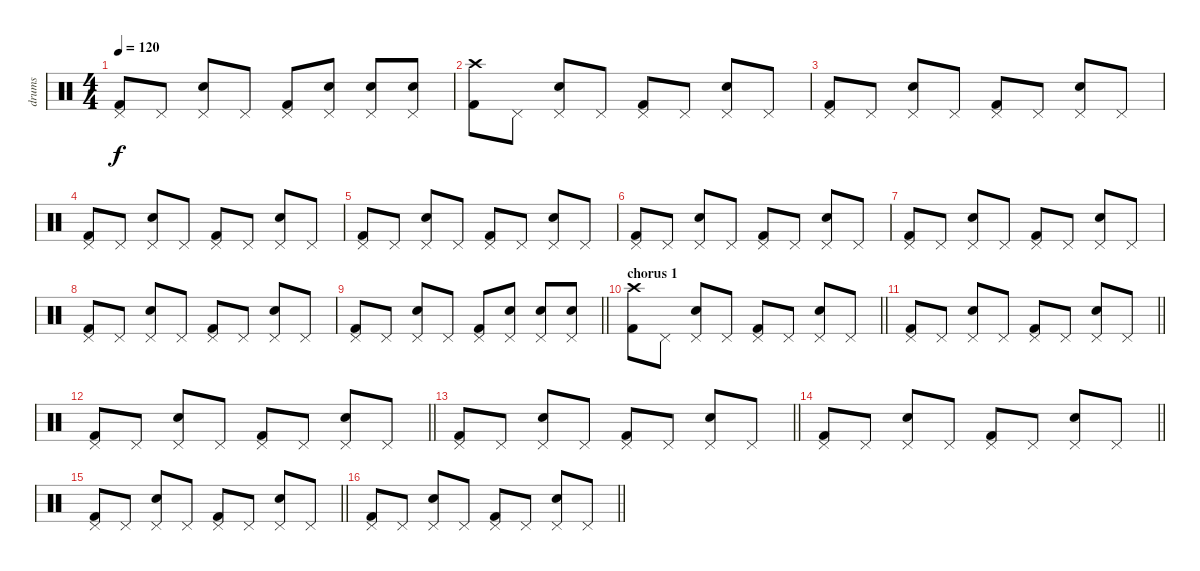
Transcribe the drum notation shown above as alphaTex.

\track ("drums" "drums") {instrument percussion}
\staff {score}
\articulation defaults
\ts (4 4)
\tempo 120
\clef neutral
\ks c
("Kick (hit) 2" "Pedal Hi-Hat (hit)").8{dy f} "Pedal Hi-Hat (hit)".8 ("Electric Snare (hit)" "Pedal Hi-Hat (hit)").8 "Pedal Hi-Hat (hit)".8 ("Kick (hit) 2" "Pedal Hi-Hat (hit)").8 ("Electric Snare (hit)" "Pedal Hi-Hat (hit)").8 ("Electric Snare (hit)" "Pedal Hi-Hat (hit)").8 ("Electric Snare (hit)" "Pedal Hi-Hat (hit)").8 |
("Kick (hit) 2" "Crash high (hit)").8 "Pedal Hi-Hat (hit)".8 ("Electric Snare (hit)" "Pedal Hi-Hat (hit)").8 "Pedal Hi-Hat (hit)".8 ("Kick (hit) 2" "Pedal Hi-Hat (hit)").8 "Pedal Hi-Hat (hit)".8 ("Electric Snare (hit)" "Pedal Hi-Hat (hit)").8 "Pedal Hi-Hat (hit)".8 |
("Kick (hit) 2" "Pedal Hi-Hat (hit)").8 "Pedal Hi-Hat (hit)".8 ("Electric Snare (hit)" "Pedal Hi-Hat (hit)").8 "Pedal Hi-Hat (hit)".8 ("Kick (hit) 2" "Pedal Hi-Hat (hit)").8 "Pedal Hi-Hat (hit)".8 ("Electric Snare (hit)" "Pedal Hi-Hat (hit)").8 "Pedal Hi-Hat (hit)".8 |
("Kick (hit) 2" "Pedal Hi-Hat (hit)").8 "Pedal Hi-Hat (hit)".8 ("Electric Snare (hit)" "Pedal Hi-Hat (hit)").8 "Pedal Hi-Hat (hit)".8 ("Kick (hit) 2" "Pedal Hi-Hat (hit)").8 "Pedal Hi-Hat (hit)".8 ("Electric Snare (hit)" "Pedal Hi-Hat (hit)").8 "Pedal Hi-Hat (hit)".8 |
("Kick (hit) 2" "Pedal Hi-Hat (hit)").8 "Pedal Hi-Hat (hit)".8 ("Electric Snare (hit)" "Pedal Hi-Hat (hit)").8 "Pedal Hi-Hat (hit)".8 ("Kick (hit) 2" "Pedal Hi-Hat (hit)").8 "Pedal Hi-Hat (hit)".8 ("Electric Snare (hit)" "Pedal Hi-Hat (hit)").8 "Pedal Hi-Hat (hit)".8 |
("Kick (hit) 2" "Pedal Hi-Hat (hit)").8 "Pedal Hi-Hat (hit)".8 ("Electric Snare (hit)" "Pedal Hi-Hat (hit)").8 "Pedal Hi-Hat (hit)".8 ("Kick (hit) 2" "Pedal Hi-Hat (hit)").8 "Pedal Hi-Hat (hit)".8 ("Electric Snare (hit)" "Pedal Hi-Hat (hit)").8 "Pedal Hi-Hat (hit)".8 |
("Kick (hit) 2" "Pedal Hi-Hat (hit)").8 "Pedal Hi-Hat (hit)".8 ("Electric Snare (hit)" "Pedal Hi-Hat (hit)").8 "Pedal Hi-Hat (hit)".8 ("Kick (hit) 2" "Pedal Hi-Hat (hit)").8 "Pedal Hi-Hat (hit)".8 ("Electric Snare (hit)" "Pedal Hi-Hat (hit)").8 "Pedal Hi-Hat (hit)".8 |
("Kick (hit) 2" "Pedal Hi-Hat (hit)").8 "Pedal Hi-Hat (hit)".8 ("Electric Snare (hit)" "Pedal Hi-Hat (hit)").8 "Pedal Hi-Hat (hit)".8 ("Kick (hit) 2" "Pedal Hi-Hat (hit)").8 "Pedal Hi-Hat (hit)".8 ("Electric Snare (hit)" "Pedal Hi-Hat (hit)").8 "Pedal Hi-Hat (hit)".8 |
\barLineRight lightlight
("Kick (hit) 2" "Pedal Hi-Hat (hit)").8 "Pedal Hi-Hat (hit)".8 ("Electric Snare (hit)" "Pedal Hi-Hat (hit)").8 "Pedal Hi-Hat (hit)".8 ("Kick (hit) 2" "Pedal Hi-Hat (hit)").8 ("Electric Snare (hit)" "Pedal Hi-Hat (hit)").8 ("Electric Snare (hit)" "Pedal Hi-Hat (hit)").8 ("Electric Snare (hit)" "Pedal Hi-Hat (hit)").8 |
\section ("" "chorus 1")
\barLineRight lightlight
("Kick (hit) 2" "Crash high (hit)").8 "Pedal Hi-Hat (hit)".8 ("Electric Snare (hit)" "Pedal Hi-Hat (hit)").8 "Pedal Hi-Hat (hit)".8 ("Kick (hit) 2" "Pedal Hi-Hat (hit)").8 "Pedal Hi-Hat (hit)".8 ("Electric Snare (hit)" "Pedal Hi-Hat (hit)").8 "Pedal Hi-Hat (hit)".8 |
\barLineRight lightlight
("Kick (hit) 2" "Pedal Hi-Hat (hit)").8 "Pedal Hi-Hat (hit)".8 ("Electric Snare (hit)" "Pedal Hi-Hat (hit)").8 "Pedal Hi-Hat (hit)".8 ("Kick (hit) 2" "Pedal Hi-Hat (hit)").8 "Pedal Hi-Hat (hit)".8 ("Electric Snare (hit)" "Pedal Hi-Hat (hit)").8 "Pedal Hi-Hat (hit)".8 |
\barLineRight lightlight
("Kick (hit) 2" "Pedal Hi-Hat (hit)").8 "Pedal Hi-Hat (hit)".8 ("Electric Snare (hit)" "Pedal Hi-Hat (hit)").8 "Pedal Hi-Hat (hit)".8 ("Kick (hit) 2" "Pedal Hi-Hat (hit)").8 "Pedal Hi-Hat (hit)".8 ("Electric Snare (hit)" "Pedal Hi-Hat (hit)").8 "Pedal Hi-Hat (hit)".8 |
\barLineRight lightlight
("Kick (hit) 2" "Pedal Hi-Hat (hit)").8 "Pedal Hi-Hat (hit)".8 ("Electric Snare (hit)" "Pedal Hi-Hat (hit)").8 "Pedal Hi-Hat (hit)".8 ("Kick (hit) 2" "Pedal Hi-Hat (hit)").8 "Pedal Hi-Hat (hit)".8 ("Electric Snare (hit)" "Pedal Hi-Hat (hit)").8 "Pedal Hi-Hat (hit)".8 |
\barLineRight lightlight
("Kick (hit) 2" "Pedal Hi-Hat (hit)").8 "Pedal Hi-Hat (hit)".8 ("Electric Snare (hit)" "Pedal Hi-Hat (hit)").8 "Pedal Hi-Hat (hit)".8 ("Kick (hit) 2" "Pedal Hi-Hat (hit)").8 "Pedal Hi-Hat (hit)".8 ("Electric Snare (hit)" "Pedal Hi-Hat (hit)").8 "Pedal Hi-Hat (hit)".8 |
\barLineRight lightlight
("Kick (hit) 2" "Pedal Hi-Hat (hit)").8 "Pedal Hi-Hat (hit)".8 ("Electric Snare (hit)" "Pedal Hi-Hat (hit)").8 "Pedal Hi-Hat (hit)".8 ("Kick (hit) 2" "Pedal Hi-Hat (hit)").8 "Pedal Hi-Hat (hit)".8 ("Electric Snare (hit)" "Pedal Hi-Hat (hit)").8 "Pedal Hi-Hat (hit)".8 |
\barLineRight lightlight
("Kick (hit) 2" "Pedal Hi-Hat (hit)").8 "Pedal Hi-Hat (hit)".8 ("Electric Snare (hit)" "Pedal Hi-Hat (hit)").8 "Pedal Hi-Hat (hit)".8 ("Kick (hit) 2" "Pedal Hi-Hat (hit)").8 "Pedal Hi-Hat (hit)".8 ("Electric Snare (hit)" "Pedal Hi-Hat (hit)").8 "Pedal Hi-Hat (hit)".8
